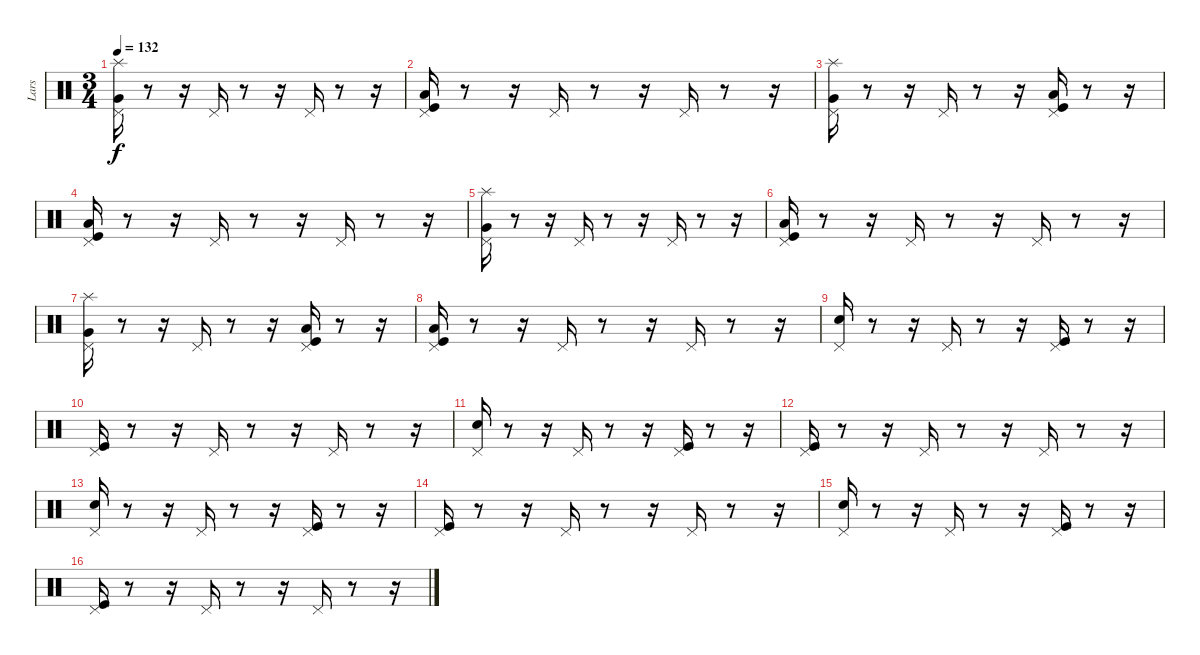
\track ("Lars" "Lars") {instrument percussion}
\staff {score}
\articulation defaults
\ts (3 4)
\tempo 132
\clef neutral
\ks c
("Pedal Hi-Hat (hit)" "Very Low Tom (hit)" "Splash (hit)").16{dy f} r.8 r.16 "Pedal Hi-Hat (hit)".16 r.8 r.16 "Pedal Hi-Hat (hit)".16 r.8 r.16 |
("Low Floor Tom (hit)" "Pedal Hi-Hat (hit)" "Kick (hit)").16 r.8 r.16 "Pedal Hi-Hat (hit)".16 r.8 r.16 "Pedal Hi-Hat (hit)".16 r.8 r.16 |
("Pedal Hi-Hat (hit)" "Very Low Tom (hit)" "Splash (hit)").16 r.8 r.16 "Pedal Hi-Hat (hit)".16 r.8 r.16 ("Pedal Hi-Hat (hit)" "Low Floor Tom (hit)" "Kick (hit)").16 r.8 r.16 |
("Low Floor Tom (hit)" "Pedal Hi-Hat (hit)" "Kick (hit)").16 r.8 r.16 "Pedal Hi-Hat (hit)".16 r.8 r.16 "Pedal Hi-Hat (hit)".16 r.8 r.16 |
("Pedal Hi-Hat (hit)" "Very Low Tom (hit)" "Splash (hit)").16 r.8 r.16 "Pedal Hi-Hat (hit)".16 r.8 r.16 "Pedal Hi-Hat (hit)".16 r.8 r.16 |
("Low Floor Tom (hit)" "Pedal Hi-Hat (hit)" "Kick (hit)").16 r.8 r.16 "Pedal Hi-Hat (hit)".16 r.8 r.16 "Pedal Hi-Hat (hit)".16 r.8 r.16 |
("Pedal Hi-Hat (hit)" "Very Low Tom (hit)" "Splash (hit)").16 r.8 r.16 "Pedal Hi-Hat (hit)".16 r.8 r.16 ("Pedal Hi-Hat (hit)" "Low Floor Tom (hit)" "Kick (hit)").16 r.8 r.16 |
("Pedal Hi-Hat (hit)" "Low Floor Tom (hit)" "Kick (hit)").16 r.8 r.16 "Pedal Hi-Hat (hit)".16 r.8 r.16 "Pedal Hi-Hat (hit)".16 r.8 r.16 |
("Pedal Hi-Hat (hit)" "Snare (hit) 2").16 r.8 r.16 "Pedal Hi-Hat (hit)".16 r.8 r.16 ("Pedal Hi-Hat (hit)" "Kick (hit)").16 r.8 r.16 |
("Pedal Hi-Hat (hit)" "Kick (hit)").16 r.8 r.16 "Pedal Hi-Hat (hit)".16 r.8 r.16 "Pedal Hi-Hat (hit)".16 r.8 r.16 |
("Pedal Hi-Hat (hit)" "Snare (hit) 2").16 r.8 r.16 "Pedal Hi-Hat (hit)".16 r.8 r.16 ("Pedal Hi-Hat (hit)" "Kick (hit)").16 r.8 r.16 |
("Pedal Hi-Hat (hit)" "Kick (hit)").16 r.8 r.16 "Pedal Hi-Hat (hit)".16 r.8 r.16 "Pedal Hi-Hat (hit)".16 r.8 r.16 |
("Pedal Hi-Hat (hit)" "Snare (hit) 2").16 r.8 r.16 "Pedal Hi-Hat (hit)".16 r.8 r.16 ("Pedal Hi-Hat (hit)" "Kick (hit)").16 r.8 r.16 |
("Pedal Hi-Hat (hit)" "Kick (hit)").16 r.8 r.16 "Pedal Hi-Hat (hit)".16 r.8 r.16 "Pedal Hi-Hat (hit)".16 r.8 r.16 |
("Pedal Hi-Hat (hit)" "Snare (hit) 2").16 r.8 r.16 "Pedal Hi-Hat (hit)".16 r.8 r.16 ("Pedal Hi-Hat (hit)" "Kick (hit)").16 r.8 r.16 |
("Pedal Hi-Hat (hit)" "Kick (hit)").16 r.8 r.16 "Pedal Hi-Hat (hit)".16 r.8 r.16 "Pedal Hi-Hat (hit)".16 r.8 r.16
